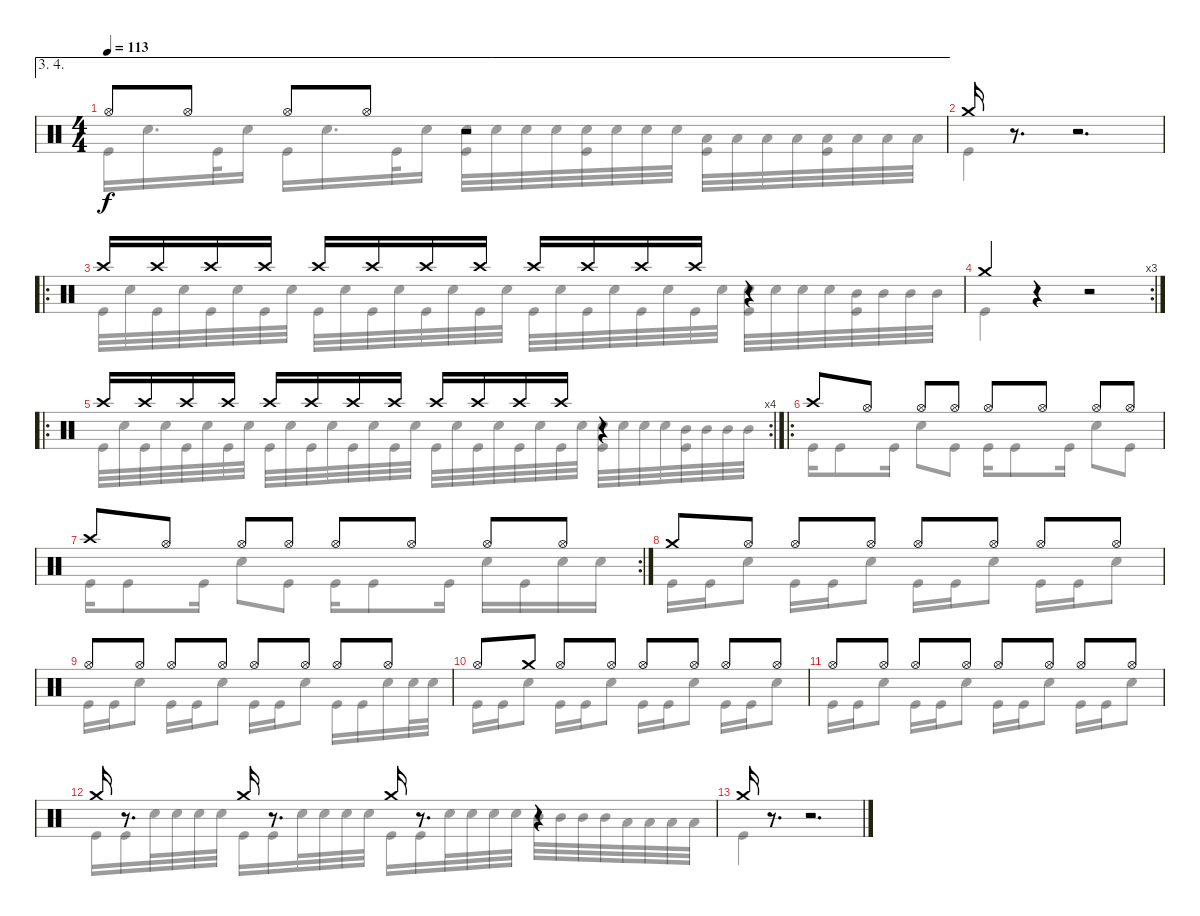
\track "" {instrument percussion}
\staff {score}
\articulation defaults
\voice
\ae (3 4)
\ts (4 4)
\tempo 113
\clef neutral
\ks c "Hi-Hat (open)".8{dy f} "Hi-Hat (open)".8 "Hi-Hat (open)".8 "Hi-Hat (open)".8
r.2 |
"Crash medium (hit)".16 r.8{d} r.2{d} |
\ro "Crash high (hit)".16 "Crash high (hit)".16 "Crash high (hit)".16 "Crash high (hit)".16 "Crash high (hit)".16 "Crash high (hit)".16 "Crash high (hit)".16 "Crash high (hit)".16 "Crash high (hit)".16 "Crash high (hit)".16 "Crash high (hit)".16 "Crash high (hit)".16
r.4 |
\rc 3 "Crash medium (hit)".4
r.4 r.2 |
\ro
\rc 4 "Crash high (hit)".16 "Crash high (hit)".16 "Crash high (hit)".16 "Crash high (hit)".16 "Crash high (hit)".16 "Crash high (hit)".16 "Crash high (hit)".16 "Crash high (hit)".16 "Crash high (hit)".16 "Crash high (hit)".16 "Crash high (hit)".16 "Crash high (hit)".16
r.4 |
\ro "Crash high (hit)".8 "Hi-Hat (open)".8 "Hi-Hat (open)".8 "Hi-Hat (open)".8 "Hi-Hat (open)".8 "Hi-Hat (open)".8 "Hi-Hat (open)".8 "Hi-Hat (open)".8
|
\rc 2 "Crash high (hit)".8 "Hi-Hat (open)".8 "Hi-Hat (open)".8 "Hi-Hat (open)".8 "Hi-Hat (open)".8 "Hi-Hat (open)".8 "Hi-Hat (open)".8 "Hi-Hat (open)".8
|
"Crash medium (hit)".8 "Hi-Hat (open)".8 "Hi-Hat (open)".8 "Hi-Hat (open)".8 "Hi-Hat (open)".8 "Hi-Hat (open)".8 "Hi-Hat (open)".8 "Hi-Hat (open)".8 |
"Hi-Hat (open)".8 "Hi-Hat (open)".8 "Hi-Hat (open)".8 "Hi-Hat (open)".8 "Hi-Hat (open)".8 "Hi-Hat (open)".8 "Hi-Hat (open)".8 "Hi-Hat (open)".8 |
"Hi-Hat (open)".8 "Crash medium (hit)".8 "Hi-Hat (open)".8 "Hi-Hat (open)".8 "Hi-Hat (open)".8 "Hi-Hat (open)".8 "Hi-Hat (open)".8 "Hi-Hat (open)".8 |
"Hi-Hat (open)".8 "Hi-Hat (open)".8 "Hi-Hat (open)".8 "Hi-Hat (open)".8 "Hi-Hat (open)".8 "Hi-Hat (open)".8 "Hi-Hat (open)".8 "Hi-Hat (open)".8 |
"Crash medium (hit)".16 r.8{d} "Crash medium (hit)".16 r.8{d} "Crash medium (hit)".16 r.8{d} r.4 |
"Crash medium (hit)".16 r.8{d} r.2{d}
\voice
\clef neutral
\ottava regular
\simile none
\ks c "Kick (hit)".16{dy f} "Snare (hit) 2".16{d} "Kick (hit)".32 "Snare (hit) 2".16 "Kick (hit)".16 "Snare (hit) 2".16{d} "Kick (hit)".32 "Snare (hit) 2".16
("Snare (hit) 2" "Kick (hit)").32 "Snare (hit) 2".32 "Snare (hit) 2".32 "Snare (hit) 2".32 ("Snare (hit) 2" "Kick (hit)").32 "Snare (hit) 2".32 "Snare (hit) 2".32 "Snare (hit) 2".32 ("Low Tom (hit)" "Kick (hit)").32 "Low Tom (hit)".32 "Low Tom (hit)".32 "Low Tom (hit)".32 ("Low Tom (hit)" "Kick (hit)").32 "Low Tom (hit)".32 "Low Tom (hit)".32 "Low Tom (hit)".32 |
"Kick (hit)".4 r.2{d} |
"Kick (hit)".32 "Snare (hit) 2".32 "Kick (hit)".32 "Snare (hit) 2".32 "Kick (hit)".32 "Snare (hit) 2".32 "Kick (hit)".32 "Snare (hit) 2".32 "Kick (hit)".32 "Snare (hit) 2".32 "Kick (hit)".32 "Snare (hit) 2".32 "Kick (hit)".32 "Snare (hit) 2".32 "Kick (hit)".32 "Snare (hit) 2".32 "Kick (hit)".32 "Snare (hit) 2".32 "Kick (hit)".32 "Snare (hit) 2".32 "Kick (hit)".32 "Snare (hit) 2".32 "Kick (hit)".32 "Snare (hit) 2".32 ("Snare (hit) 2" "Kick (hit)").32 "Snare (hit) 2".32 "Snare (hit) 2".32 "Snare (hit) 2".32 ("Mid Tom (hit)" "Kick (hit)").32 "Mid Tom (hit)".32 "Mid Tom (hit)".32 "Mid Tom (hit)".32 |
"Kick (hit)".4 r.4 r.2 |
"Kick (hit)".32 "Snare (hit) 2".32 "Kick (hit)".32 "Snare (hit) 2".32 "Kick (hit)".32 "Snare (hit) 2".32 "Kick (hit)".32 "Snare (hit) 2".32 "Kick (hit)".32 "Snare (hit) 2".32 "Kick (hit)".32 "Snare (hit) 2".32 "Kick (hit)".32 "Snare (hit) 2".32 "Kick (hit)".32 "Snare (hit) 2".32 "Kick (hit)".32 "Snare (hit) 2".32 "Kick (hit)".32 "Snare (hit) 2".32 "Kick (hit)".32 "Snare (hit) 2".32 "Kick (hit)".32 "Snare (hit) 2".32 ("Snare (hit) 2" "Kick (hit)").32 "Snare (hit) 2".32 "Snare (hit) 2".32 "Snare (hit) 2".32 ("Mid Tom (hit)" "Kick (hit)").32 "Mid Tom (hit)".32 "Mid Tom (hit)".32 "Mid Tom (hit)".32 |
"Kick (hit)".16 "Kick (hit)".8 "Kick (hit)".16 "Snare (hit) 2".8 "Kick (hit)".8 "Kick (hit)".16 "Kick (hit)".8 "Kick (hit)".16 "Snare (hit) 2".8 "Kick (hit)".8 |
"Kick (hit)".16 "Kick (hit)".8 "Kick (hit)".16 "Snare (hit) 2".8 "Kick (hit)".8 "Kick (hit)".16 "Kick (hit)".8 "Kick (hit)".16 "Snare (hit) 2".16 "Kick (hit)".16 "Snare (hit) 2".16 "Snare (hit) 2".16 |
"Kick (hit)".16 "Kick (hit)".16 "Snare (hit) 2".8 "Kick (hit)".16 "Kick (hit)".16 "Snare (hit) 2".8 "Kick (hit)".16 "Kick (hit)".16 "Snare (hit) 2".8 "Kick (hit)".16 "Kick (hit)".16 "Snare (hit) 2".8 |
"Kick (hit)".16 "Kick (hit)".16 "Snare (hit) 2".8 "Kick (hit)".16 "Kick (hit)".16 "Snare (hit) 2".8 "Kick (hit)".16 "Kick (hit)".16 "Snare (hit) 2".8 "Kick (hit)".16 "Kick (hit)".16 "Snare (hit) 2".16 "Snare (hit) 2".32 "Snare (hit) 2".32 |
"Kick (hit)".16 "Kick (hit)".16 "Snare (hit) 2".8 "Kick (hit)".16 "Kick (hit)".16 "Snare (hit) 2".8 "Kick (hit)".16 "Kick (hit)".16 "Snare (hit) 2".8 "Kick (hit)".16 "Kick (hit)".16 "Snare (hit) 2".8 |
"Kick (hit)".16 "Kick (hit)".16 "Snare (hit) 2".8 "Kick (hit)".16 "Kick (hit)".16 "Snare (hit) 2".8 "Kick (hit)".16 "Kick (hit)".16 "Snare (hit) 2".8 "Kick (hit)".16 "Kick (hit)".16 "Snare (hit) 2".8 |
"Kick (hit)".16 "Kick (hit)".16 "Snare (hit) 2".32 "Snare (hit) 2".32 "Snare (hit) 2".32 "Snare (hit) 2".32 "Kick (hit)".16 "Kick (hit)".16 "Snare (hit) 2".32 "Snare (hit) 2".32 "Snare (hit) 2".32 "Snare (hit) 2".32 "Kick (hit)".16 "Kick (hit)".16 "Snare (hit) 2".32 "Snare (hit) 2".32 "Snare (hit) 2".32 "Snare (hit) 2".32 "Mid Tom (hit)".32 "Mid Tom (hit)".32 "Mid Tom (hit)".32 "Mid Tom (hit)".32 "Low Tom (hit)".32 "Low Tom (hit)".32 "Low Tom (hit)".32 "Low Tom (hit)".32 |
"Kick (hit)".4 r.2{d}
